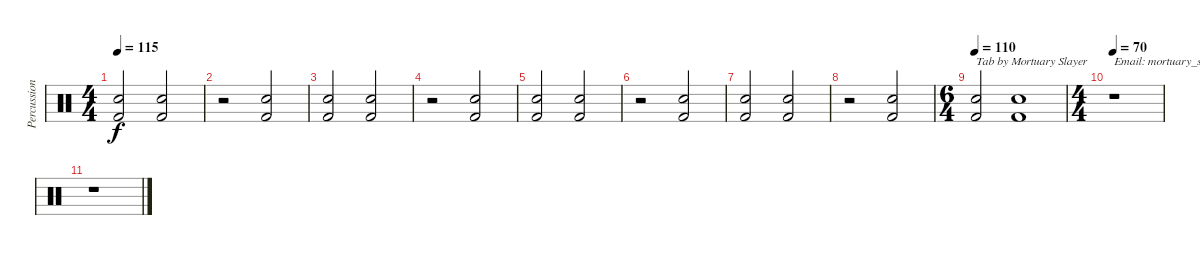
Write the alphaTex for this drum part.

\track ("Percussions" "Percussion") {instrument percussion}
\staff {score}
\articulation defaults
\ts (4 4)
\tempo 115
\clef neutral
\ks c
("Electric Snare (hit)" "Kick (hit) 2").2{dy f} ("Electric Snare (hit)" "Kick (hit) 2").2 |
r.2 ("Electric Snare (hit)" "Kick (hit) 2").2 |
("Electric Snare (hit)" "Kick (hit) 2").2 ("Electric Snare (hit)" "Kick (hit) 2").2 |
r.2 ("Electric Snare (hit)" "Kick (hit) 2").2 |
("Electric Snare (hit)" "Kick (hit) 2").2 ("Electric Snare (hit)" "Kick (hit) 2").2 |
r.2 ("Electric Snare (hit)" "Kick (hit) 2").2 |
("Electric Snare (hit)" "Kick (hit) 2").2 ("Electric Snare (hit)" "Kick (hit) 2").2 |
r.2 ("Electric Snare (hit)" "Kick (hit) 2").2 |
\ts (6 4)
\tempo 110
("Electric Snare (hit)" "Kick (hit) 2").2{txt "Tab by Mortuary Slayer"} ("Electric Snare (hit)" "Kick (hit) 2").1 |
\ts (4 4)
\tempo 70
r.1{txt "Email: mortuary_slayer@hotmail.com"} |
r.1
